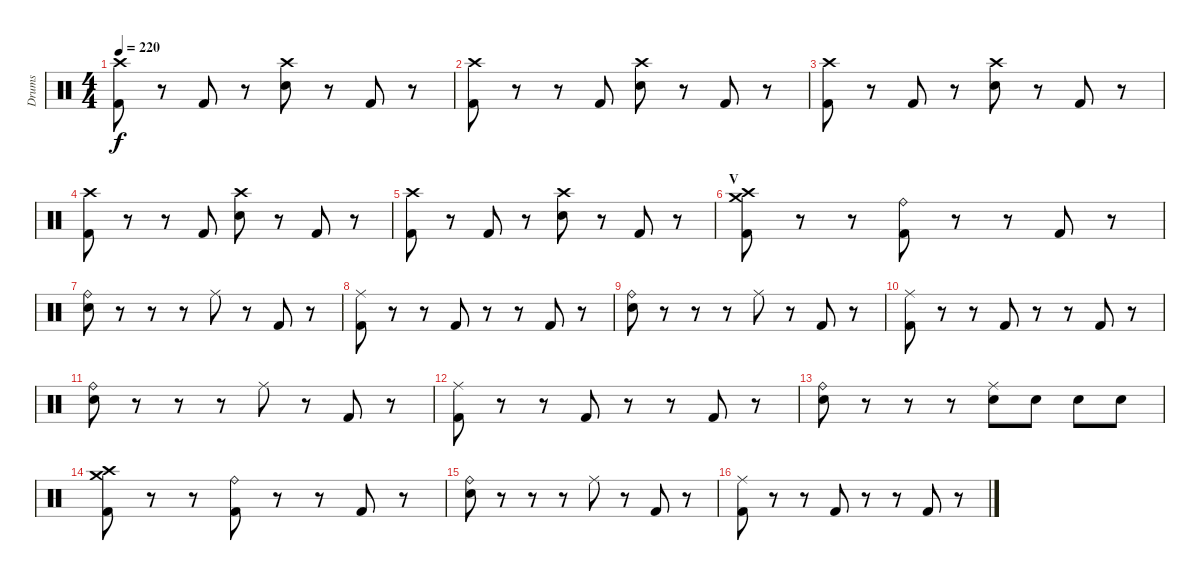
\track ("Drums" "Drums") {instrument percussion}
\staff {score}
\articulation defaults
\ts (4 4)
\tempo 220
\clef neutral
\ks c
("Crash high (hit)" "Kick (hit) 2").8{dy f} r.8 "Kick (hit) 2".8 r.8 ("Crash high (hit)" "Electric Snare (hit)").8 r.8 "Kick (hit) 2".8 r.8 |
("Crash high (hit)" "Kick (hit) 2").8 r.8 r.8 "Kick (hit) 2".8 ("Crash high (hit)" "Electric Snare (hit)").8 r.8 "Kick (hit) 2".8 r.8 |
("Crash high (hit)" "Kick (hit) 2").8 r.8 "Kick (hit) 2".8 r.8 ("Crash high (hit)" "Electric Snare (hit)").8 r.8 "Kick (hit) 2".8 r.8 |
("Crash high (hit)" "Kick (hit) 2").8 r.8 r.8 "Kick (hit) 2".8 ("Crash high (hit)" "Electric Snare (hit)").8 r.8 "Kick (hit) 2".8 r.8 |
("Crash high (hit)" "Kick (hit) 2").8 r.8 "Kick (hit) 2".8 r.8 ("Crash high (hit)" "Electric Snare (hit)").8 r.8 "Kick (hit) 2".8 r.8 |
\section ("" "V")
("Crash medium (hit)" "Crash high (hit)" "Kick (hit) 2").8 r.8 r.8 ("Ride (bell)" "Kick (hit) 2").8 r.8 r.8 "Kick (hit) 2".8 r.8 |
("Ride (bell)" "Electric Snare (hit)").8 r.8 r.8 r.8 "Ride (middle)".8 r.8 "Kick (hit) 2".8 r.8 |
("Ride (middle)" "Kick (hit) 2").8 r.8 r.8 "Kick (hit) 2".8 r.8 r.8 "Kick (hit) 2".8 r.8 |
("Ride (bell)" "Electric Snare (hit)").8 r.8 r.8 r.8 "Ride (middle)".8 r.8 "Kick (hit) 2".8 r.8 |
("Ride (middle)" "Kick (hit) 2").8 r.8 r.8 "Kick (hit) 2".8 r.8 r.8 "Kick (hit) 2".8 r.8 |
("Ride (bell)" "Electric Snare (hit)").8 r.8 r.8 r.8 "Ride (middle)".8 r.8 "Kick (hit) 2".8 r.8 |
("Ride (middle)" "Kick (hit) 2").8 r.8 r.8 "Kick (hit) 2".8 r.8 r.8 "Kick (hit) 2".8 r.8 |
("Ride (bell)" "Electric Snare (hit)").8 r.8 r.8 r.8 ("Ride (middle)" "Electric Snare (hit)").8 "Electric Snare (hit)".8 "Electric Snare (hit)".8 "Electric Snare (hit)".8 |
("Crash medium (hit)" "Crash high (hit)" "Kick (hit) 2").8 r.8 r.8 ("Ride (bell)" "Kick (hit) 2").8 r.8 r.8 "Kick (hit) 2".8 r.8 |
("Ride (bell)" "Electric Snare (hit)").8 r.8 r.8 r.8 "Ride (middle)".8 r.8 "Kick (hit) 2".8 r.8 |
("Ride (middle)" "Kick (hit) 2").8 r.8 r.8 "Kick (hit) 2".8 r.8 r.8 "Kick (hit) 2".8 r.8
